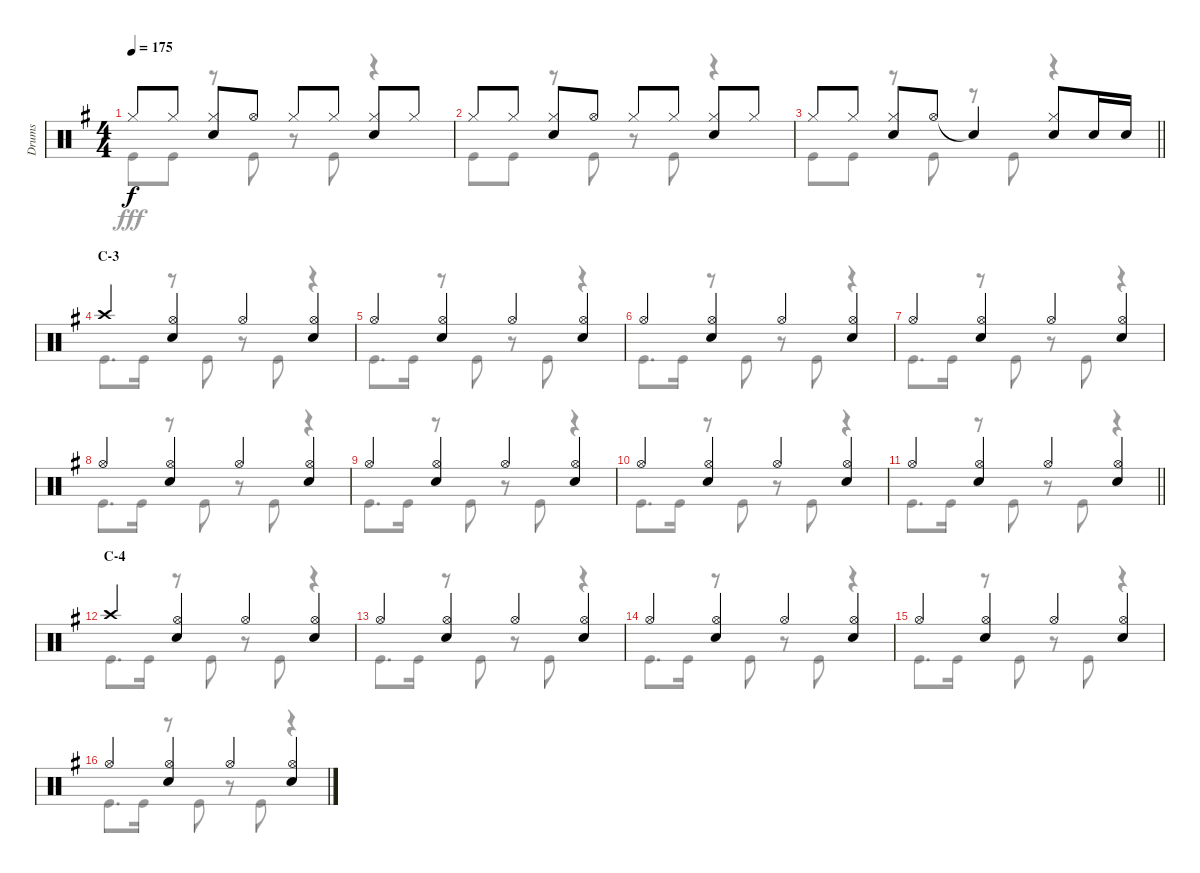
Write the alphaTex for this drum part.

\track ("Drums" "Drums") {instrument percussion}
\staff {score}
\articulation defaults
\voice
\ts (4 4)
\tempo 175
\clef neutral
\ks g "Hi-Hat (closed)".8{dy f} "Hi-Hat (closed)".8
("Hi-Hat (closed)" "Snare (hit) 2").8 "Hi-Hat (open)".8 "Hi-Hat (closed)".8 "Hi-Hat (closed)".8 ("Hi-Hat (closed)" "Snare (hit) 2").8 "Hi-Hat (closed)".8 |
"Hi-Hat (closed)".8 "Hi-Hat (closed)".8 ("Hi-Hat (closed)" "Snare (hit) 2").8 "Hi-Hat (open)".8 "Hi-Hat (closed)".8 "Hi-Hat (closed)".8 ("Hi-Hat (closed)" "Snare (hit) 2").8 "Hi-Hat (closed)".8 |
\barLineRight lightlight "Hi-Hat (closed)".8 "Hi-Hat (closed)".8
("Hi-Hat (closed)" "Snare (hit) 2").8 "Hi-Hat (open)".8 "Snare (hit)"{t}.4 ("Hi-Hat (closed)" "Snare (hit) 2").8 "Snare (hit) 2".16 "Snare (hit) 2".16 |
\section ("" "C-3")
"Crash high (hit)".4 ("Hi-Hat (open)" "Snare (hit) 2").4 "Hi-Hat (open)".4 ("Hi-Hat (open)" "Snare (hit) 2").4 |
"Hi-Hat (open)".4 ("Hi-Hat (open)" "Snare (hit) 2").4 "Hi-Hat (open)".4 ("Hi-Hat (open)" "Snare (hit) 2").4 |
"Hi-Hat (open)".4 ("Hi-Hat (open)" "Snare (hit) 2").4 "Hi-Hat (open)".4 ("Hi-Hat (open)" "Snare (hit) 2").4 |
"Hi-Hat (open)".4 ("Hi-Hat (open)" "Snare (hit) 2").4 "Hi-Hat (open)".4 ("Hi-Hat (open)" "Snare (hit) 2").4 |
"Hi-Hat (open)".4 ("Hi-Hat (open)" "Snare (hit) 2").4 "Hi-Hat (open)".4 ("Hi-Hat (open)" "Snare (hit) 2").4 |
"Hi-Hat (open)".4 ("Hi-Hat (open)" "Snare (hit) 2").4 "Hi-Hat (open)".4 ("Hi-Hat (open)" "Snare (hit) 2").4 |
"Hi-Hat (open)".4 ("Hi-Hat (open)" "Snare (hit) 2").4 "Hi-Hat (open)".4 ("Hi-Hat (open)" "Snare (hit) 2").4 |
\barLineRight lightlight "Hi-Hat (open)".4
("Hi-Hat (open)" "Snare (hit) 2").4 "Hi-Hat (open)".4 ("Hi-Hat (open)" "Snare (hit) 2").4 |
\section ("" "C-4")
"Crash high (hit)".4 ("Hi-Hat (open)" "Snare (hit) 2").4 "Hi-Hat (open)".4 ("Hi-Hat (open)" "Snare (hit) 2").4 |
"Hi-Hat (open)".4 ("Hi-Hat (open)" "Snare (hit) 2").4 "Hi-Hat (open)".4 ("Hi-Hat (open)" "Snare (hit) 2").4 |
"Hi-Hat (open)".4 ("Hi-Hat (open)" "Snare (hit) 2").4 "Hi-Hat (open)".4 ("Hi-Hat (open)" "Snare (hit) 2").4 |
"Hi-Hat (open)".4 ("Hi-Hat (open)" "Snare (hit) 2").4 "Hi-Hat (open)".4 ("Hi-Hat (open)" "Snare (hit) 2").4 |
"Hi-Hat (open)".4 ("Hi-Hat (open)" "Snare (hit) 2").4 "Hi-Hat (open)".4 ("Hi-Hat (open)" "Snare (hit) 2").4
\voice
\clef neutral
\ottava regular
\simile none
\ks g "Kick (hit)".8{dy fff} "Kick (hit)".8
r.8 "Kick (hit)".8 r.8 "Kick (hit)".8 r.4 |
"Kick (hit)".8 "Kick (hit)".8 r.8 "Kick (hit)".8 r.8 "Kick (hit)".8 r.4 |
\barLineRight lightlight "Kick (hit)".8 "Kick (hit)".8
r.8 "Kick (hit)".8 r.8 "Kick (hit)".8 r.4 |
"Kick (hit)".8{d} "Kick (hit)".16 r.8 "Kick (hit)".8 r.8 "Kick (hit)".8 r.4 |
"Kick (hit)".8{d} "Kick (hit)".16 r.8 "Kick (hit)".8 r.8 "Kick (hit)".8 r.4 |
"Kick (hit)".8{d} "Kick (hit)".16 r.8 "Kick (hit)".8 r.8 "Kick (hit)".8 r.4 |
"Kick (hit)".8{d} "Kick (hit)".16 r.8 "Kick (hit)".8 r.8 "Kick (hit)".8 r.4 |
"Kick (hit)".8{d} "Kick (hit)".16 r.8 "Kick (hit)".8 r.8 "Kick (hit)".8 r.4 |
"Kick (hit)".8{d} "Kick (hit)".16 r.8 "Kick (hit)".8 r.8 "Kick (hit)".8 r.4 |
"Kick (hit)".8{d} "Kick (hit)".16 r.8 "Kick (hit)".8 r.8 "Kick (hit)".8 r.4 |
\barLineRight lightlight "Kick (hit)".8{d} "Kick (hit)".16
r.8 "Kick (hit)".8 r.8 "Kick (hit)".8 r.4 |
"Kick (hit)".8{d} "Kick (hit)".16 r.8 "Kick (hit)".8 r.8 "Kick (hit)".8 r.4 |
"Kick (hit)".8{d} "Kick (hit)".16 r.8 "Kick (hit)".8 r.8 "Kick (hit)".8 r.4 |
"Kick (hit)".8{d} "Kick (hit)".16 r.8 "Kick (hit)".8 r.8 "Kick (hit)".8 r.4 |
"Kick (hit)".8{d} "Kick (hit)".16 r.8 "Kick (hit)".8 r.8 "Kick (hit)".8 r.4 |
"Kick (hit)".8{d} "Kick (hit)".16 r.8 "Kick (hit)".8 r.8 "Kick (hit)".8 r.4
